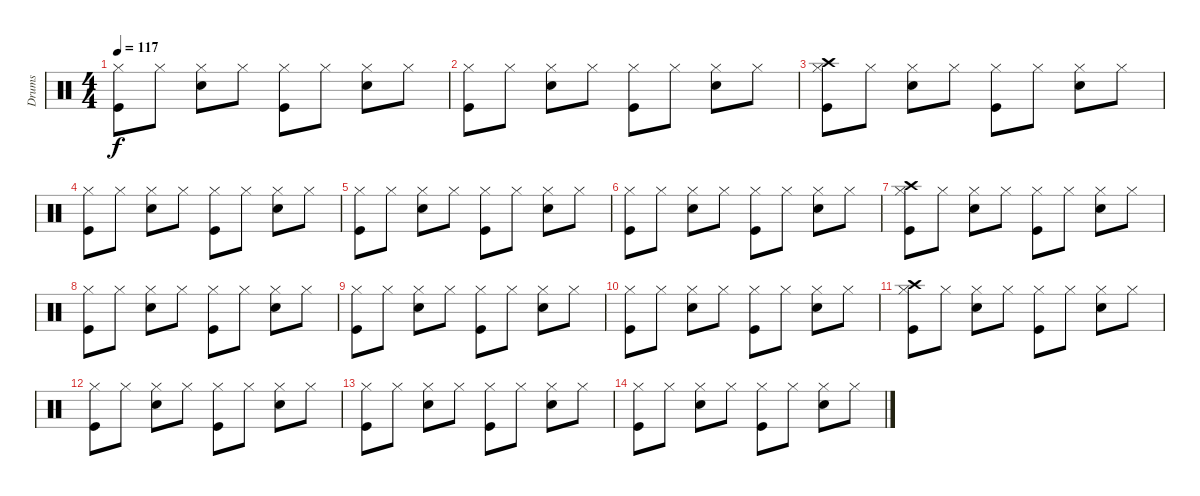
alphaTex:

\track ("Drums" "Drums") {instrument percussion}
\staff {score}
\articulation defaults
\ts (4 4)
\tempo 117
\clef neutral
\ks c
("Kick (hit)" "Hi-Hat (closed)").8{dy f} "Hi-Hat (closed)".8 ("Hi-Hat (closed)" "Snare (hit) 2").8 "Hi-Hat (closed)".8 ("Kick (hit)" "Hi-Hat (closed)").8 "Hi-Hat (closed)".8 ("Hi-Hat (closed)" "Snare (hit) 2").8 "Hi-Hat (closed)".8 |
("Kick (hit)" "Hi-Hat (closed)").8 "Hi-Hat (closed)".8 ("Hi-Hat (closed)" "Snare (hit) 2").8 "Hi-Hat (closed)".8 ("Kick (hit)" "Hi-Hat (closed)").8 "Hi-Hat (closed)".8 ("Hi-Hat (closed)" "Snare (hit) 2").8 "Hi-Hat (closed)".8 |
("Kick (hit)" "Hi-Hat (closed)" "Crash high (hit)").8 "Hi-Hat (closed)".8 ("Hi-Hat (closed)" "Snare (hit) 2").8 "Hi-Hat (closed)".8 ("Kick (hit)" "Hi-Hat (closed)").8 "Hi-Hat (closed)".8 ("Hi-Hat (closed)" "Snare (hit) 2").8 "Hi-Hat (closed)".8 |
("Kick (hit)" "Hi-Hat (closed)").8 "Hi-Hat (closed)".8 ("Hi-Hat (closed)" "Snare (hit) 2").8 "Hi-Hat (closed)".8 ("Kick (hit)" "Hi-Hat (closed)").8 "Hi-Hat (closed)".8 ("Hi-Hat (closed)" "Snare (hit) 2").8 "Hi-Hat (closed)".8 |
("Kick (hit)" "Hi-Hat (closed)").8 "Hi-Hat (closed)".8 ("Hi-Hat (closed)" "Snare (hit) 2").8 "Hi-Hat (closed)".8 ("Kick (hit)" "Hi-Hat (closed)").8 "Hi-Hat (closed)".8 ("Hi-Hat (closed)" "Snare (hit) 2").8 "Hi-Hat (closed)".8 |
("Kick (hit)" "Hi-Hat (closed)").8 "Hi-Hat (closed)".8 ("Hi-Hat (closed)" "Snare (hit) 2").8 "Hi-Hat (closed)".8 ("Kick (hit)" "Hi-Hat (closed)").8 "Hi-Hat (closed)".8 ("Hi-Hat (closed)" "Snare (hit) 2").8 "Hi-Hat (closed)".8 |
("Kick (hit)" "Hi-Hat (closed)" "Crash high (hit)").8 "Hi-Hat (closed)".8 ("Hi-Hat (closed)" "Snare (hit) 2").8 "Hi-Hat (closed)".8 ("Kick (hit)" "Hi-Hat (closed)").8 "Hi-Hat (closed)".8 ("Hi-Hat (closed)" "Snare (hit) 2").8 "Hi-Hat (closed)".8 |
("Kick (hit)" "Hi-Hat (closed)").8 "Hi-Hat (closed)".8 ("Hi-Hat (closed)" "Snare (hit) 2").8 "Hi-Hat (closed)".8 ("Kick (hit)" "Hi-Hat (closed)").8 "Hi-Hat (closed)".8 ("Hi-Hat (closed)" "Snare (hit) 2").8 "Hi-Hat (closed)".8 |
("Kick (hit)" "Hi-Hat (closed)").8 "Hi-Hat (closed)".8 ("Hi-Hat (closed)" "Snare (hit) 2").8 "Hi-Hat (closed)".8 ("Kick (hit)" "Hi-Hat (closed)").8 "Hi-Hat (closed)".8 ("Hi-Hat (closed)" "Snare (hit) 2").8 "Hi-Hat (closed)".8 |
("Kick (hit)" "Hi-Hat (closed)").8 "Hi-Hat (closed)".8 ("Hi-Hat (closed)" "Snare (hit) 2").8 "Hi-Hat (closed)".8 ("Kick (hit)" "Hi-Hat (closed)").8 "Hi-Hat (closed)".8 ("Hi-Hat (closed)" "Snare (hit) 2").8 "Hi-Hat (closed)".8 |
("Kick (hit)" "Hi-Hat (closed)" "Crash high (hit)").8 "Hi-Hat (closed)".8 ("Hi-Hat (closed)" "Snare (hit) 2").8 "Hi-Hat (closed)".8 ("Kick (hit)" "Hi-Hat (closed)").8 "Hi-Hat (closed)".8 ("Hi-Hat (closed)" "Snare (hit) 2").8 "Hi-Hat (closed)".8 |
("Kick (hit)" "Hi-Hat (closed)").8 "Hi-Hat (closed)".8 ("Hi-Hat (closed)" "Snare (hit) 2").8 "Hi-Hat (closed)".8 ("Kick (hit)" "Hi-Hat (closed)").8 "Hi-Hat (closed)".8 ("Hi-Hat (closed)" "Snare (hit) 2").8 "Hi-Hat (closed)".8 |
("Kick (hit)" "Hi-Hat (closed)").8 "Hi-Hat (closed)".8 ("Hi-Hat (closed)" "Snare (hit) 2").8 "Hi-Hat (closed)".8 ("Kick (hit)" "Hi-Hat (closed)").8 "Hi-Hat (closed)".8 ("Hi-Hat (closed)" "Snare (hit) 2").8 "Hi-Hat (closed)".8 |
("Kick (hit)" "Hi-Hat (closed)").8 "Hi-Hat (closed)".8 ("Hi-Hat (closed)" "Snare (hit) 2").8 "Hi-Hat (closed)".8 ("Kick (hit)" "Hi-Hat (closed)").8 "Hi-Hat (closed)".8 ("Hi-Hat (closed)" "Snare (hit) 2").8 "Hi-Hat (closed)".8
